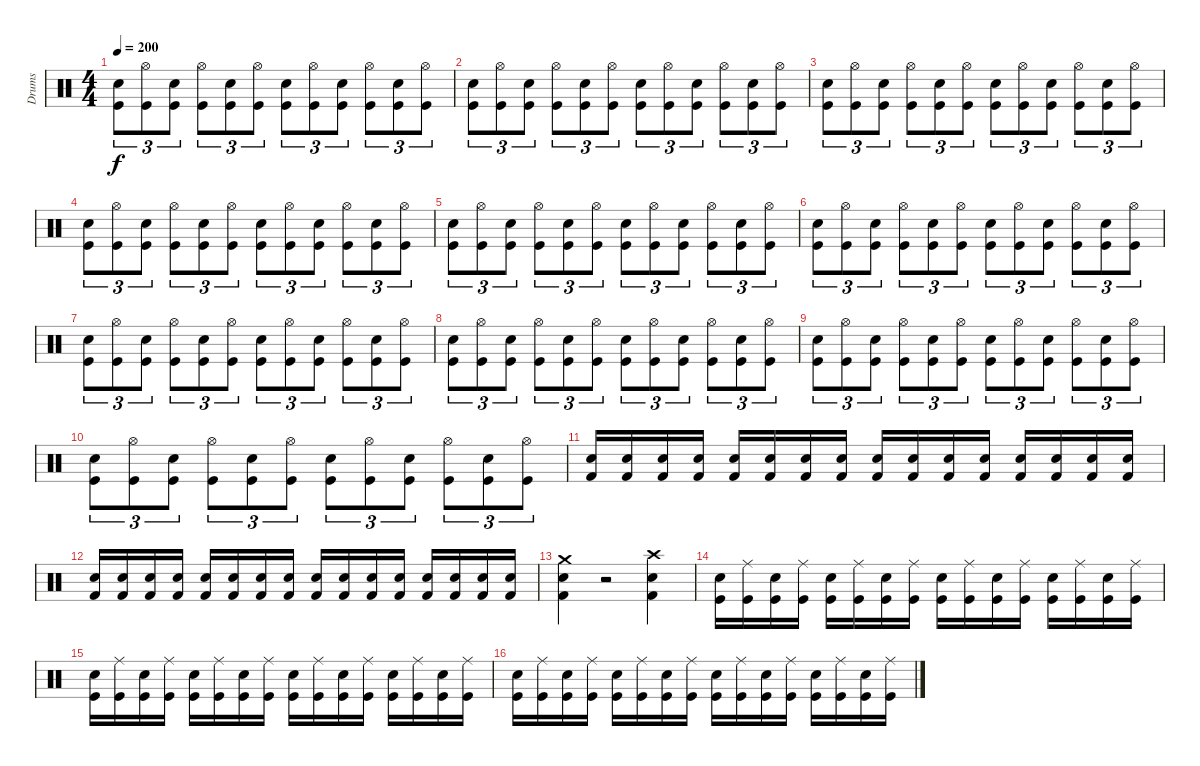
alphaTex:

\track ("Drums" "Drums") {instrument percussion}
\staff {score}
\articulation defaults
\ts (4 4)
\tempo 200
\clef neutral
\ks c
("Electric Snare (hit)" "Kick (hit)").8{tu (3 2) dy f} ("Hi-Hat (open)" "Kick (hit)").8{tu (3 2)} ("Electric Snare (hit)" "Kick (hit)").8{tu (3 2)} ("Hi-Hat (open)" "Kick (hit)").8{tu (3 2)} ("Electric Snare (hit)" "Kick (hit)").8{tu (3 2)} ("Hi-Hat (open)" "Kick (hit)").8{tu (3 2)} ("Electric Snare (hit)" "Kick (hit)").8{tu (3 2)} ("Hi-Hat (open)" "Kick (hit)").8{tu (3 2)} ("Electric Snare (hit)" "Kick (hit)").8{tu (3 2)} ("Hi-Hat (open)" "Kick (hit)").8{tu (3 2)} ("Electric Snare (hit)" "Kick (hit)").8{tu (3 2)} ("Hi-Hat (open)" "Kick (hit)").8{tu (3 2)} |
("Electric Snare (hit)" "Kick (hit)").8{tu (3 2)} ("Hi-Hat (open)" "Kick (hit)").8{tu (3 2)} ("Electric Snare (hit)" "Kick (hit)").8{tu (3 2)} ("Hi-Hat (open)" "Kick (hit)").8{tu (3 2)} ("Electric Snare (hit)" "Kick (hit)").8{tu (3 2)} ("Hi-Hat (open)" "Kick (hit)").8{tu (3 2)} ("Electric Snare (hit)" "Kick (hit)").8{tu (3 2)} ("Hi-Hat (open)" "Kick (hit)").8{tu (3 2)} ("Electric Snare (hit)" "Kick (hit)").8{tu (3 2)} ("Hi-Hat (open)" "Kick (hit)").8{tu (3 2)} ("Electric Snare (hit)" "Kick (hit)").8{tu (3 2)} ("Hi-Hat (open)" "Kick (hit)").8{tu (3 2)} |
("Electric Snare (hit)" "Kick (hit)").8{tu (3 2)} ("Hi-Hat (open)" "Kick (hit)").8{tu (3 2)} ("Electric Snare (hit)" "Kick (hit)").8{tu (3 2)} ("Hi-Hat (open)" "Kick (hit)").8{tu (3 2)} ("Electric Snare (hit)" "Kick (hit)").8{tu (3 2)} ("Hi-Hat (open)" "Kick (hit)").8{tu (3 2)} ("Electric Snare (hit)" "Kick (hit)").8{tu (3 2)} ("Hi-Hat (open)" "Kick (hit)").8{tu (3 2)} ("Electric Snare (hit)" "Kick (hit)").8{tu (3 2)} ("Hi-Hat (open)" "Kick (hit)").8{tu (3 2)} ("Electric Snare (hit)" "Kick (hit)").8{tu (3 2)} ("Hi-Hat (open)" "Kick (hit)").8{tu (3 2)} |
("Electric Snare (hit)" "Kick (hit)").8{tu (3 2)} ("Hi-Hat (open)" "Kick (hit)").8{tu (3 2)} ("Electric Snare (hit)" "Kick (hit)").8{tu (3 2)} ("Hi-Hat (open)" "Kick (hit)").8{tu (3 2)} ("Electric Snare (hit)" "Kick (hit)").8{tu (3 2)} ("Hi-Hat (open)" "Kick (hit)").8{tu (3 2)} ("Electric Snare (hit)" "Kick (hit)").8{tu (3 2)} ("Hi-Hat (open)" "Kick (hit)").8{tu (3 2)} ("Electric Snare (hit)" "Kick (hit)").8{tu (3 2)} ("Hi-Hat (open)" "Kick (hit)").8{tu (3 2)} ("Electric Snare (hit)" "Kick (hit)").8{tu (3 2)} ("Hi-Hat (open)" "Kick (hit)").8{tu (3 2)} |
("Electric Snare (hit)" "Kick (hit)").8{tu (3 2)} ("Hi-Hat (open)" "Kick (hit)").8{tu (3 2)} ("Electric Snare (hit)" "Kick (hit)").8{tu (3 2)} ("Hi-Hat (open)" "Kick (hit)").8{tu (3 2)} ("Electric Snare (hit)" "Kick (hit)").8{tu (3 2)} ("Hi-Hat (open)" "Kick (hit)").8{tu (3 2)} ("Electric Snare (hit)" "Kick (hit)").8{tu (3 2)} ("Hi-Hat (open)" "Kick (hit)").8{tu (3 2)} ("Electric Snare (hit)" "Kick (hit)").8{tu (3 2)} ("Hi-Hat (open)" "Kick (hit)").8{tu (3 2)} ("Electric Snare (hit)" "Kick (hit)").8{tu (3 2)} ("Hi-Hat (open)" "Kick (hit)").8{tu (3 2)} |
("Electric Snare (hit)" "Kick (hit)").8{tu (3 2)} ("Hi-Hat (open)" "Kick (hit)").8{tu (3 2)} ("Electric Snare (hit)" "Kick (hit)").8{tu (3 2)} ("Hi-Hat (open)" "Kick (hit)").8{tu (3 2)} ("Electric Snare (hit)" "Kick (hit)").8{tu (3 2)} ("Hi-Hat (open)" "Kick (hit)").8{tu (3 2)} ("Electric Snare (hit)" "Kick (hit)").8{tu (3 2)} ("Hi-Hat (open)" "Kick (hit)").8{tu (3 2)} ("Electric Snare (hit)" "Kick (hit)").8{tu (3 2)} ("Hi-Hat (open)" "Kick (hit)").8{tu (3 2)} ("Electric Snare (hit)" "Kick (hit)").8{tu (3 2)} ("Hi-Hat (open)" "Kick (hit)").8{tu (3 2)} |
("Electric Snare (hit)" "Kick (hit)").8{tu (3 2)} ("Hi-Hat (open)" "Kick (hit)").8{tu (3 2)} ("Electric Snare (hit)" "Kick (hit)").8{tu (3 2)} ("Hi-Hat (open)" "Kick (hit)").8{tu (3 2)} ("Electric Snare (hit)" "Kick (hit)").8{tu (3 2)} ("Hi-Hat (open)" "Kick (hit)").8{tu (3 2)} ("Electric Snare (hit)" "Kick (hit)").8{tu (3 2)} ("Hi-Hat (open)" "Kick (hit)").8{tu (3 2)} ("Electric Snare (hit)" "Kick (hit)").8{tu (3 2)} ("Hi-Hat (open)" "Kick (hit)").8{tu (3 2)} ("Electric Snare (hit)" "Kick (hit)").8{tu (3 2)} ("Hi-Hat (open)" "Kick (hit)").8{tu (3 2)} |
("Electric Snare (hit)" "Kick (hit)").8{tu (3 2)} ("Hi-Hat (open)" "Kick (hit)").8{tu (3 2)} ("Electric Snare (hit)" "Kick (hit)").8{tu (3 2)} ("Hi-Hat (open)" "Kick (hit)").8{tu (3 2)} ("Electric Snare (hit)" "Kick (hit)").8{tu (3 2)} ("Hi-Hat (open)" "Kick (hit)").8{tu (3 2)} ("Electric Snare (hit)" "Kick (hit)").8{tu (3 2)} ("Hi-Hat (open)" "Kick (hit)").8{tu (3 2)} ("Electric Snare (hit)" "Kick (hit)").8{tu (3 2)} ("Hi-Hat (open)" "Kick (hit)").8{tu (3 2)} ("Electric Snare (hit)" "Kick (hit)").8{tu (3 2)} ("Hi-Hat (open)" "Kick (hit)").8{tu (3 2)} |
("Electric Snare (hit)" "Kick (hit)").8{tu (3 2)} ("Hi-Hat (open)" "Kick (hit)").8{tu (3 2)} ("Electric Snare (hit)" "Kick (hit)").8{tu (3 2)} ("Hi-Hat (open)" "Kick (hit)").8{tu (3 2)} ("Electric Snare (hit)" "Kick (hit)").8{tu (3 2)} ("Hi-Hat (open)" "Kick (hit)").8{tu (3 2)} ("Electric Snare (hit)" "Kick (hit)").8{tu (3 2)} ("Hi-Hat (open)" "Kick (hit)").8{tu (3 2)} ("Electric Snare (hit)" "Kick (hit)").8{tu (3 2)} ("Hi-Hat (open)" "Kick (hit)").8{tu (3 2)} ("Electric Snare (hit)" "Kick (hit)").8{tu (3 2)} ("Hi-Hat (open)" "Kick (hit)").8{tu (3 2)} |
("Electric Snare (hit)" "Kick (hit)").8{tu (3 2)} ("Hi-Hat (open)" "Kick (hit)").8{tu (3 2)} ("Electric Snare (hit)" "Kick (hit)").8{tu (3 2)} ("Hi-Hat (open)" "Kick (hit)").8{tu (3 2)} ("Electric Snare (hit)" "Kick (hit)").8{tu (3 2)} ("Hi-Hat (open)" "Kick (hit)").8{tu (3 2)} ("Electric Snare (hit)" "Kick (hit)").8{tu (3 2)} ("Hi-Hat (open)" "Kick (hit)").8{tu (3 2)} ("Electric Snare (hit)" "Kick (hit)").8{tu (3 2)} ("Hi-Hat (open)" "Kick (hit)").8{tu (3 2)} ("Electric Snare (hit)" "Kick (hit)").8{tu (3 2)} ("Hi-Hat (open)" "Kick (hit)").8{tu (3 2)} |
("Electric Snare (hit)" "Kick (hit) 2").16 ("Electric Snare (hit)" "Kick (hit) 2").16 ("Electric Snare (hit)" "Kick (hit) 2").16 ("Electric Snare (hit)" "Kick (hit) 2").16 ("Electric Snare (hit)" "Kick (hit) 2").16 ("Electric Snare (hit)" "Kick (hit) 2").16 ("Electric Snare (hit)" "Kick (hit) 2").16 ("Electric Snare (hit)" "Kick (hit) 2").16 ("Electric Snare (hit)" "Kick (hit) 2").16 ("Electric Snare (hit)" "Kick (hit) 2").16 ("Electric Snare (hit)" "Kick (hit) 2").16 ("Electric Snare (hit)" "Kick (hit) 2").16 ("Electric Snare (hit)" "Kick (hit) 2").16 ("Electric Snare (hit)" "Kick (hit) 2").16 ("Electric Snare (hit)" "Kick (hit) 2").16 ("Electric Snare (hit)" "Kick (hit) 2").16 |
("Electric Snare (hit)" "Kick (hit) 2").16 ("Electric Snare (hit)" "Kick (hit) 2").16 ("Electric Snare (hit)" "Kick (hit) 2").16 ("Electric Snare (hit)" "Kick (hit) 2").16 ("Electric Snare (hit)" "Kick (hit) 2").16 ("Electric Snare (hit)" "Kick (hit) 2").16 ("Electric Snare (hit)" "Kick (hit) 2").16 ("Electric Snare (hit)" "Kick (hit) 2").16 ("Electric Snare (hit)" "Kick (hit) 2").16 ("Electric Snare (hit)" "Kick (hit) 2").16 ("Electric Snare (hit)" "Kick (hit) 2").16 ("Electric Snare (hit)" "Kick (hit) 2").16 ("Electric Snare (hit)" "Kick (hit) 2").16 ("Electric Snare (hit)" "Kick (hit) 2").16 ("Electric Snare (hit)" "Kick (hit) 2").16 ("Electric Snare (hit)" "Kick (hit) 2").16 |
("Crash medium (hit)" "Electric Snare (hit)" "Kick (hit) 2").4 r.2 ("Crash high (hit)" "Electric Snare (hit)" "Kick (hit) 2").4 |
("Electric Snare (hit)" "Kick (hit)").16 ("Ride (middle)" "Kick (hit)").16 ("Electric Snare (hit)" "Kick (hit)").16 ("Ride (middle)" "Kick (hit)").16 ("Electric Snare (hit)" "Kick (hit)").16 ("Ride (middle)" "Kick (hit)").16 ("Electric Snare (hit)" "Kick (hit)").16 ("Ride (middle)" "Kick (hit)").16 ("Electric Snare (hit)" "Kick (hit)").16 ("Ride (middle)" "Kick (hit)").16 ("Electric Snare (hit)" "Kick (hit)").16 ("Ride (middle)" "Kick (hit)").16 ("Electric Snare (hit)" "Kick (hit)").16 ("Ride (middle)" "Kick (hit)").16 ("Electric Snare (hit)" "Kick (hit)").16 ("Ride (middle)" "Kick (hit)").16 |
("Electric Snare (hit)" "Kick (hit)").16 ("Ride (middle)" "Kick (hit)").16 ("Electric Snare (hit)" "Kick (hit)").16 ("Ride (middle)" "Kick (hit)").16 ("Electric Snare (hit)" "Kick (hit)").16 ("Ride (middle)" "Kick (hit)").16 ("Electric Snare (hit)" "Kick (hit)").16 ("Ride (middle)" "Kick (hit)").16 ("Electric Snare (hit)" "Kick (hit)").16 ("Ride (middle)" "Kick (hit)").16 ("Electric Snare (hit)" "Kick (hit)").16 ("Ride (middle)" "Kick (hit)").16 ("Electric Snare (hit)" "Kick (hit)").16 ("Ride (middle)" "Kick (hit)").16 ("Electric Snare (hit)" "Kick (hit)").16 ("Ride (middle)" "Kick (hit)").16 |
("Electric Snare (hit)" "Kick (hit)").16 ("Ride (middle)" "Kick (hit)").16 ("Electric Snare (hit)" "Kick (hit)").16 ("Ride (middle)" "Kick (hit)").16 ("Electric Snare (hit)" "Kick (hit)").16 ("Ride (middle)" "Kick (hit)").16 ("Electric Snare (hit)" "Kick (hit)").16 ("Ride (middle)" "Kick (hit)").16 ("Electric Snare (hit)" "Kick (hit)").16 ("Ride (middle)" "Kick (hit)").16 ("Electric Snare (hit)" "Kick (hit)").16 ("Ride (middle)" "Kick (hit)").16 ("Electric Snare (hit)" "Kick (hit)").16 ("Ride (middle)" "Kick (hit)").16 ("Electric Snare (hit)" "Kick (hit)").16 ("Ride (middle)" "Kick (hit)").16
